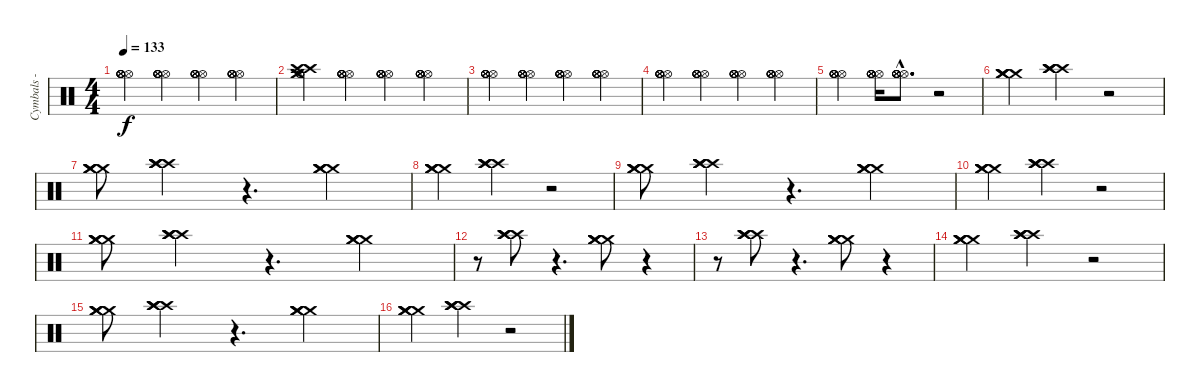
\track ("Cymbals - Joe Daniels" "Cymbals - ") {instrument percussion}
\staff {score}
\articulation defaults
\ts (4 4)
\tempo 133
\clef neutral
\ks c
("Hi-Hat (open)" "Hi-Hat (open)" "Hi-Hat (open)" "Hi-Hat (open)" "Hi-Hat (open)" "Hi-Hat (open)").4{dy f} ("Hi-Hat (open)" "Hi-Hat (open)" "Hi-Hat (open)" "Hi-Hat (open)" "Hi-Hat (open)" "Hi-Hat (open)").4 ("Hi-Hat (open)" "Hi-Hat (open)" "Hi-Hat (open)" "Hi-Hat (open)" "Hi-Hat (open)" "Hi-Hat (open)").4 ("Hi-Hat (open)" "Hi-Hat (open)" "Hi-Hat (open)" "Hi-Hat (open)" "Hi-Hat (open)" "Hi-Hat (open)").4 |
("Hi-Hat (open)" "Crash medium (hit)" "Crash medium (hit)" "Crash high (hit)" "Crash high (hit)" "Hi-Hat (open)").4 ("Hi-Hat (open)" "Hi-Hat (open)" "Hi-Hat (open)" "Hi-Hat (open)" "Hi-Hat (open)" "Hi-Hat (open)").4 ("Hi-Hat (open)" "Hi-Hat (open)" "Hi-Hat (open)" "Hi-Hat (open)" "Hi-Hat (open)" "Hi-Hat (open)").4 ("Hi-Hat (open)" "Hi-Hat (open)" "Hi-Hat (open)" "Hi-Hat (open)" "Hi-Hat (open)" "Hi-Hat (open)").4 |
("Hi-Hat (open)" "Hi-Hat (open)" "Hi-Hat (open)" "Hi-Hat (open)" "Hi-Hat (open)" "Hi-Hat (open)").4 ("Hi-Hat (open)" "Hi-Hat (open)" "Hi-Hat (open)" "Hi-Hat (open)" "Hi-Hat (open)" "Hi-Hat (open)").4 ("Hi-Hat (open)" "Hi-Hat (open)" "Hi-Hat (open)" "Hi-Hat (open)" "Hi-Hat (open)" "Hi-Hat (open)").4 ("Hi-Hat (open)" "Hi-Hat (open)" "Hi-Hat (open)" "Hi-Hat (open)" "Hi-Hat (open)" "Hi-Hat (open)").4 |
("Hi-Hat (open)" "Hi-Hat (open)" "Hi-Hat (open)" "Hi-Hat (open)" "Hi-Hat (open)" "Hi-Hat (open)").4 ("Hi-Hat (open)" "Hi-Hat (open)" "Hi-Hat (open)" "Hi-Hat (open)" "Hi-Hat (open)" "Hi-Hat (open)").4 ("Hi-Hat (open)" "Hi-Hat (open)" "Hi-Hat (open)" "Hi-Hat (open)" "Hi-Hat (open)" "Hi-Hat (open)").4 ("Hi-Hat (open)" "Hi-Hat (open)" "Hi-Hat (open)" "Hi-Hat (open)" "Hi-Hat (open)" "Hi-Hat (open)").4 |
("Hi-Hat (open)" "Hi-Hat (open)" "Hi-Hat (open)" "Hi-Hat (open)" "Hi-Hat (open)" "Hi-Hat (open)").4 ("Hi-Hat (open)" "Hi-Hat (open)" "Hi-Hat (open)" "Hi-Hat (open)" "Hi-Hat (open)" "Hi-Hat (open)").16 ("Hi-Hat (open)"{hac} "Hi-Hat (open)"{hac} "Hi-Hat (open)"{hac} "Hi-Hat (open)"{hac} "Hi-Hat (open)"{hac} "Hi-Hat (open)"{hac}).8{d} r.2 |
("Crash medium (hit)" "Crash medium (hit)" "Crash medium (hit)" "Crash medium (hit)").4 ("Crash high (hit)" "Crash high (hit)" "Crash high (hit)" "Crash high (hit)").4 r.2 |
("Crash medium (hit)" "Crash medium (hit)" "Crash medium (hit)" "Crash medium (hit)").8 ("Crash high (hit)" "Crash high (hit)" "Crash high (hit)" "Crash high (hit)").4 r.4{d} ("Crash medium (hit)" "Crash medium (hit)" "Crash medium (hit)" "Crash medium (hit)").4 |
("Crash medium (hit)" "Crash medium (hit)" "Crash medium (hit)" "Crash medium (hit)").4 ("Crash high (hit)" "Crash high (hit)" "Crash high (hit)" "Crash high (hit)").4 r.2 |
("Crash medium (hit)" "Crash medium (hit)" "Crash medium (hit)" "Crash medium (hit)").8 ("Crash high (hit)" "Crash high (hit)" "Crash high (hit)" "Crash high (hit)").4 r.4{d} ("Crash medium (hit)" "Crash medium (hit)" "Crash medium (hit)" "Crash medium (hit)").4 |
("Crash medium (hit)" "Crash medium (hit)" "Crash medium (hit)" "Crash medium (hit)").4 ("Crash high (hit)" "Crash high (hit)" "Crash high (hit)" "Crash high (hit)").4 r.2 |
("Crash medium (hit)" "Crash medium (hit)" "Crash medium (hit)" "Crash medium (hit)").8 ("Crash high (hit)" "Crash high (hit)" "Crash high (hit)" "Crash high (hit)").4 r.4{d} ("Crash medium (hit)" "Crash medium (hit)" "Crash medium (hit)" "Crash medium (hit)").4 |
r.8 ("Crash high (hit)" "Crash high (hit)" "Crash high (hit)" "Crash high (hit)").8 r.4{d} ("Crash medium (hit)" "Crash medium (hit)" "Crash medium (hit)" "Crash medium (hit)").8 r.4 |
r.8 ("Crash high (hit)" "Crash high (hit)" "Crash high (hit)" "Crash high (hit)").8 r.4{d} ("Crash medium (hit)" "Crash medium (hit)" "Crash medium (hit)" "Crash medium (hit)").8 r.4 |
("Crash medium (hit)" "Crash medium (hit)" "Crash medium (hit)" "Crash medium (hit)").4 ("Crash high (hit)" "Crash high (hit)" "Crash high (hit)" "Crash high (hit)").4 r.2 |
("Crash medium (hit)" "Crash medium (hit)" "Crash medium (hit)" "Crash medium (hit)").8 ("Crash high (hit)" "Crash high (hit)" "Crash high (hit)" "Crash high (hit)").4 r.4{d} ("Crash medium (hit)" "Crash medium (hit)" "Crash medium (hit)" "Crash medium (hit)").4 |
("Crash medium (hit)" "Crash medium (hit)" "Crash medium (hit)" "Crash medium (hit)").4 ("Crash high (hit)" "Crash high (hit)" "Crash high (hit)" "Crash high (hit)").4 r.2
